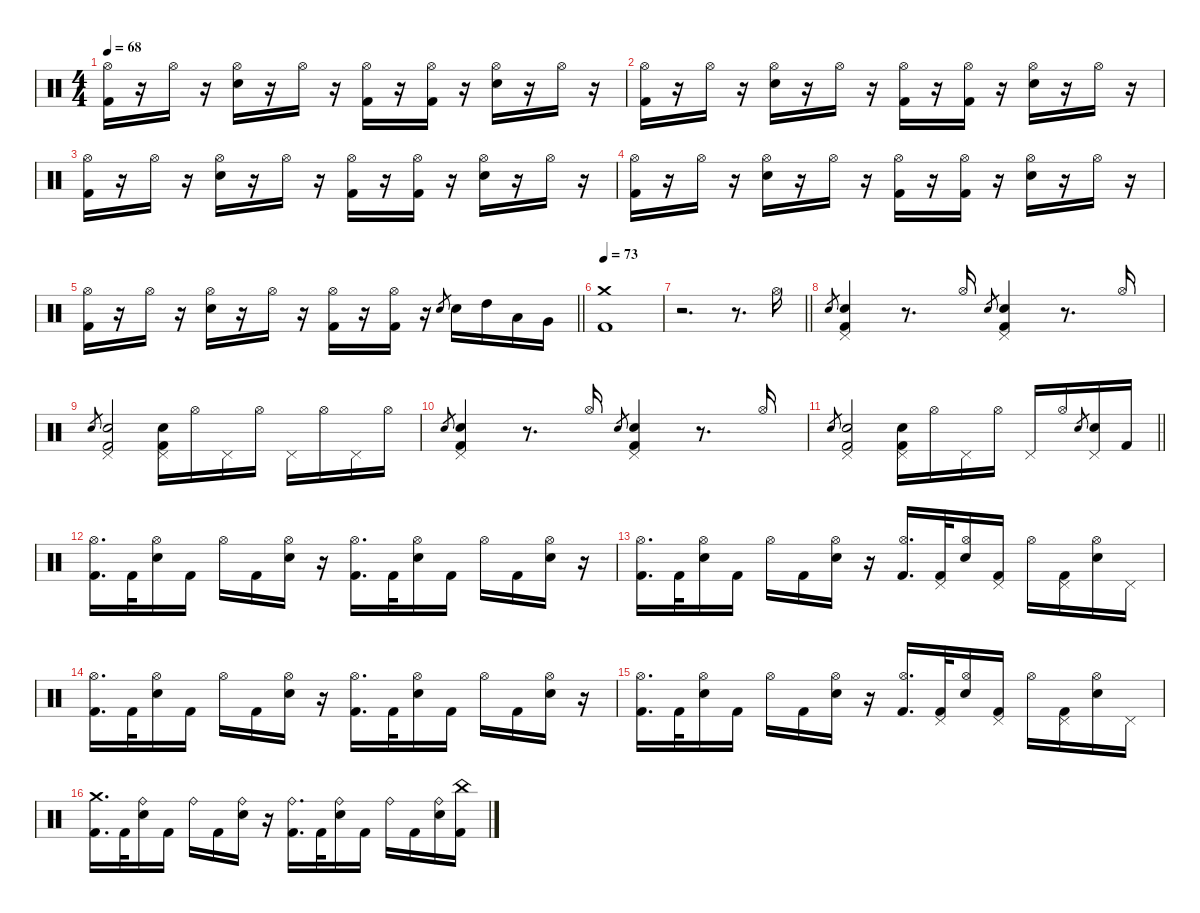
\defaultSystemsLayout 4
\hideDynamics
\bracketExtendMode nobrackets
\singleTrackTrackNamePolicy hidden
\multiTrackTrackNamePolicy hidden
\firstSystemTrackNameMode fullname
\otherSystemsTrackNameOrientation horizontal
\track ("Percussions" "drm.") {defaultSystemsLayout 4 instrument percussion}
\staff {score}
\articulation defaults
\ts (4 4)
\tempo 68
\clef neutral
\ks c
("Hi-Hat (open)" "Kick (hit) 2").16{dy f beam Down} r.16{beam Down} "Hi-Hat (open)".16{beam Down} r.16{beam Down} ("Hi-Hat (open)" "Snare (hit) 2").16{beam Down} r.16{beam Down} "Hi-Hat (open)".16{beam Down} r.16{beam Down} ("Hi-Hat (open)" "Kick (hit) 2").16{beam Down} r.16{beam Down} ("Hi-Hat (open)" "Kick (hit) 2").16{beam Down} r.16{beam Down} ("Hi-Hat (open)" "Snare (hit) 2").16{beam Down} r.16{beam Down} "Hi-Hat (open)".16{beam Down} r.16{beam Down} |
("Hi-Hat (open)" "Kick (hit) 2").16{beam Down} r.16{beam Down} "Hi-Hat (open)".16{beam Down} r.16{beam Down} ("Hi-Hat (open)" "Snare (hit) 2").16{beam Down} r.16{beam Down} "Hi-Hat (open)".16{beam Down} r.16{beam Down} ("Hi-Hat (open)" "Kick (hit) 2").16{beam Down} r.16{beam Down} ("Hi-Hat (open)" "Kick (hit) 2").16{beam Down} r.16{beam Down} ("Hi-Hat (open)" "Snare (hit) 2").16{beam Down} r.16{beam Down} "Hi-Hat (open)".16{beam Down} r.16{beam Down} |
("Hi-Hat (open)" "Kick (hit) 2").16{beam Down} r.16{beam Down} "Hi-Hat (open)".16{beam Down} r.16{beam Down} ("Hi-Hat (open)" "Snare (hit) 2").16{beam Down} r.16{beam Down} "Hi-Hat (open)".16{beam Down} r.16{beam Down} ("Hi-Hat (open)" "Kick (hit) 2").16{beam Down} r.16{beam Down} ("Hi-Hat (open)" "Kick (hit) 2").16{beam Down} r.16{beam Down} ("Hi-Hat (open)" "Snare (hit) 2").16{beam Down} r.16{beam Down} "Hi-Hat (open)".16{beam Down} r.16{beam Down} |
("Hi-Hat (open)" "Kick (hit) 2").16{beam Down} r.16{beam Down} "Hi-Hat (open)".16{beam Down} r.16{beam Down} ("Hi-Hat (open)" "Snare (hit) 2").16{beam Down} r.16{beam Down} "Hi-Hat (open)".16{beam Down} r.16{beam Down} ("Hi-Hat (open)" "Kick (hit) 2").16{beam Down} r.16{beam Down} ("Hi-Hat (open)" "Kick (hit) 2").16{beam Down} r.16{beam Down} ("Hi-Hat (open)" "Snare (hit) 2").16{beam Down} r.16{beam Down} "Hi-Hat (open)".16{beam Down} r.16{beam Down} |
\barLineRight lightlight
("Hi-Hat (open)" "Kick (hit) 2").16{beam Down} r.16{beam Down} "Hi-Hat (open)".16{beam Down} r.16{beam Down} ("Hi-Hat (open)" "Snare (hit) 2").16{beam Down} r.16{beam Down} "Hi-Hat (open)".16{beam Down} r.16{beam Down} ("Hi-Hat (open)" "Kick (hit) 2").16{beam Down} r.16{beam Down} ("Hi-Hat (open)" "Kick (hit) 2").16{beam Down} r.16{beam Down} "Electric Snare (hit)".8{gr dy ff beam Up} "Snare (hit) 2".16{dy fff beam Down} "High Tom (hit)".16{dy f beam Down} "Low Tom (hit)".16{beam Down} "Very Low Tom (hit)".16{beam Down} |
\tempo 73
("Crash medium (hit)" "Kick (hit) 2").1{beam Down} |
\barLineRight lightlight
r.2{d beam Down} r.8{d beam Down} "Hi-Hat (open)".16{beam Down} |
"Electric Snare (hit)".8{gr dy ff beam Up} ("Pedal Hi-Hat (hit)" "Snare (hit) 2" "Kick (hit) 2").4{dy f beam Up} r.8{d beam Up} "Hi-Hat (open)".16{beam Down} "Electric Snare (hit)".8{gr dy ff beam Up} ("Pedal Hi-Hat (hit)" "Snare (hit) 2" "Kick (hit) 2").4{dy f beam Up} r.8{d beam Up} "Hi-Hat (open)".16{beam Down} |
"Electric Snare (hit)".8{gr dy ff beam Up} ("Pedal Hi-Hat (hit)" "Snare (hit) 2" "Kick (hit) 2").2{dy f beam Up} ("Pedal Hi-Hat (hit)" "Snare (hit) 2" "Kick (hit) 2").16{beam Down} "Hi-Hat (open)".16{beam Down} "Pedal Hi-Hat (hit)".16{beam Down} "Hi-Hat (open)".16{beam Down} "Pedal Hi-Hat (hit)".16{beam Down} "Hi-Hat (open)".16{beam Down} "Pedal Hi-Hat (hit)".16{beam Down} "Hi-Hat (open)".16{beam Down} |
"Electric Snare (hit)".8{gr dy ff beam Up} ("Pedal Hi-Hat (hit)" "Snare (hit) 2" "Kick (hit) 2").4{dy f beam Up} r.8{d beam Up} "Hi-Hat (open)".16{beam Down} "Electric Snare (hit)".8{gr dy ff beam Up} ("Pedal Hi-Hat (hit)" "Snare (hit) 2" "Kick (hit) 2").4{dy f beam Up} r.8{d beam Up} "Hi-Hat (open)".16{beam Down} |
\barLineRight lightlight "Electric Snare (hit)".8{gr dy ff beam Up}
("Pedal Hi-Hat (hit)" "Snare (hit) 2" "Kick (hit) 2").2{dy f beam Up} ("Pedal Hi-Hat (hit)" "Snare (hit) 2" "Kick (hit) 2").16{beam Down} "Hi-Hat (open)".16{beam Down} "Pedal Hi-Hat (hit)".16{beam Down} "Hi-Hat (open)".16{beam Down} "Pedal Hi-Hat (hit)".16{beam Up} "Hi-Hat (open)".16{beam Up} "Electric Snare (hit)".8{gr dy ff beam Up} ("Pedal Hi-Hat (hit)" "Snare (hit) 2").16{dy f beam Up} "Kick (hit) 2".16{dy fff beam Up} |
("Hi-Hat (open)" "Kick (hit) 2").16{d dy f beam Down} "Kick (hit) 2".32{dy fff beam Down} ("Hi-Hat (open)" "Snare (hit) 2").16{dy f beam Down} "Kick (hit) 2".16{dy fff beam Down} "Hi-Hat (open)".16{dy f beam Down} "Kick (hit) 2".16{dy fff beam Down} ("Hi-Hat (open)" "Snare (hit) 2").16{dy f beam Down} r.16{beam Down} ("Hi-Hat (open)" "Kick (hit) 2").16{d beam Down} "Kick (hit) 2".32{dy fff beam Down} ("Hi-Hat (open)" "Snare (hit) 2").16{dy f beam Down} "Kick (hit) 2".16{dy fff beam Down} "Hi-Hat (open)".16{dy f beam Down} "Kick (hit) 2".16{dy fff beam Down} ("Hi-Hat (open)" "Snare (hit) 2").16{dy f beam Down} r.16{beam Down} |
("Hi-Hat (open)" "Kick (hit) 2").16{d beam Down} "Kick (hit) 2".32{dy fff beam Down} ("Hi-Hat (open)" "Snare (hit) 2").16{dy f beam Down} "Kick (hit) 2".16{dy fff beam Down} "Hi-Hat (open)".16{dy f beam Down} "Kick (hit) 2".16{dy fff beam Down} ("Hi-Hat (open)" "Snare (hit) 2").16{dy f beam Down} r.16{beam Down} ("Hi-Hat (open)" "Kick (hit) 2").16{d beam Up} ("Pedal Hi-Hat (hit)" "Kick (hit) 2").32{beam Up} ("Hi-Hat (open)" "Snare (hit) 2").16{beam Up} ("Pedal Hi-Hat (hit)" "Kick (hit) 2").16{beam Up} "Hi-Hat (open)".16{beam Down} ("Pedal Hi-Hat (hit)" "Kick (hit) 2").16{beam Down} ("Hi-Hat (open)" "Snare (hit) 2").16{beam Down} "Pedal Hi-Hat (hit)".16{beam Down} |
("Hi-Hat (open)" "Kick (hit) 2").16{d beam Down} "Kick (hit) 2".32{dy fff beam Down} ("Hi-Hat (open)" "Snare (hit) 2").16{dy f beam Down} "Kick (hit) 2".16{dy fff beam Down} "Hi-Hat (open)".16{dy f beam Down} "Kick (hit) 2".16{dy fff beam Down} ("Hi-Hat (open)" "Snare (hit) 2").16{dy f beam Down} r.16{beam Down} ("Hi-Hat (open)" "Kick (hit) 2").16{d beam Down} "Kick (hit) 2".32{dy fff beam Down} ("Hi-Hat (open)" "Snare (hit) 2").16{dy f beam Down} "Kick (hit) 2".16{dy fff beam Down} "Hi-Hat (open)".16{dy f beam Down} "Kick (hit) 2".16{dy fff beam Down} ("Hi-Hat (open)" "Snare (hit) 2").16{dy f beam Down} r.16{beam Down} |
("Hi-Hat (open)" "Kick (hit) 2").16{d beam Down} "Kick (hit) 2".32{dy fff beam Down} ("Hi-Hat (open)" "Snare (hit) 2").16{dy f beam Down} "Kick (hit) 2".16{dy fff beam Down} "Hi-Hat (open)".16{dy f beam Down} "Kick (hit) 2".16{dy fff beam Down} ("Hi-Hat (open)" "Snare (hit) 2").16{dy f beam Down} r.16{beam Down} ("Hi-Hat (open)" "Kick (hit) 2").16{d beam Up} ("Pedal Hi-Hat (hit)" "Kick (hit) 2").32{beam Up} ("Hi-Hat (open)" "Snare (hit) 2").16{beam Up} ("Pedal Hi-Hat (hit)" "Kick (hit) 2").16{beam Up} "Hi-Hat (open)".16{beam Down} ("Pedal Hi-Hat (hit)" "Kick (hit) 2").16{beam Down} ("Hi-Hat (open)" "Snare (hit) 2").16{beam Down} "Pedal Hi-Hat (hit)".16{beam Down} |
("Crash medium (hit)" "Kick (hit) 2").16{d dy ff beam Down} "Kick (hit) 2".32{dy fff beam Down} ("Ride (bell)" "Snare (hit) 2").16{dy ff beam Down} "Kick (hit) 2".16{dy fff beam Down} "Ride (bell)".16{dy ff beam Down} "Kick (hit) 2".16{dy fff beam Down} ("Ride (bell)" "Snare (hit) 2").16{dy ff beam Down} r.16{beam Down} ("Ride (bell)" "Kick (hit) 2").16{d beam Down} "Kick (hit) 2".32{dy fff beam Down} ("Ride (bell)" "Snare (hit) 2").16{dy ff beam Down} "Kick (hit) 2".16{dy fff beam Down} "Ride (bell)".16{dy ff beam Down} "Kick (hit) 2".16{dy fff beam Down} ("Ride (bell)" "Snare (hit) 2").16{dy ff beam Down} ("China (hit)" "Kick (hit) 2").16{dy f beam Down}
